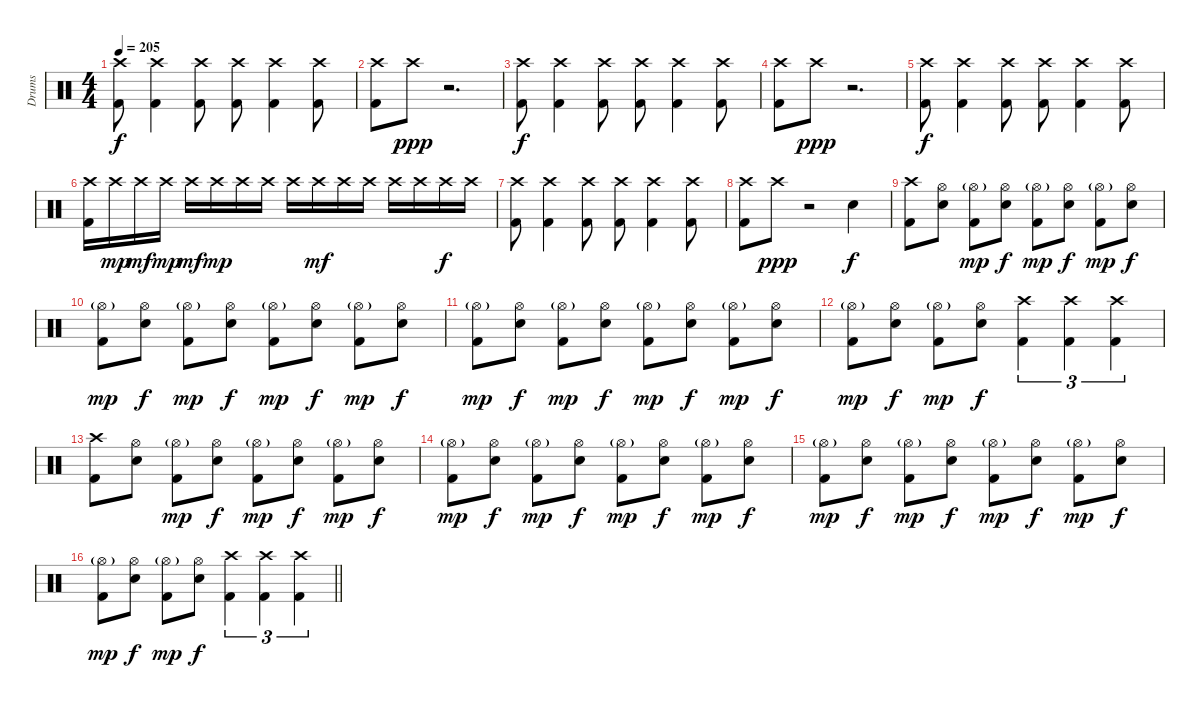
\track ("Drums" "Drums") {instrument percussion}
\staff {score}
\articulation defaults
\ts (4 4)
\tempo 205
\clef neutral
\ks c
("Crash high (hit)" "Kick (hit) 2").8{dy f} ("Crash high (hit)" "Kick (hit) 2").4 ("Crash high (hit)" "Kick (hit) 2").8 ("Crash high (hit)" "Kick (hit) 2").8 ("Crash high (hit)" "Kick (hit) 2").4 ("Crash high (hit)" "Kick (hit) 2").8 |
("Crash high (hit)" "Kick (hit) 2").8 "Crash high (hit)".8{dy ppp} r.2{d} |
("Crash high (hit)" "Kick (hit) 2").8{dy f} ("Crash high (hit)" "Kick (hit) 2").4 ("Crash high (hit)" "Kick (hit) 2").8 ("Crash high (hit)" "Kick (hit) 2").8 ("Crash high (hit)" "Kick (hit) 2").4 ("Crash high (hit)" "Kick (hit) 2").8 |
("Crash high (hit)" "Kick (hit) 2").8 "Crash high (hit)".8{dy ppp} r.2{d} |
("Crash high (hit)" "Kick (hit) 2").8{dy f} ("Crash high (hit)" "Kick (hit) 2").4 ("Crash high (hit)" "Kick (hit) 2").8 ("Crash high (hit)" "Kick (hit) 2").8 ("Crash high (hit)" "Kick (hit) 2").4 ("Crash high (hit)" "Kick (hit) 2").8 |
("Crash high (hit)" "Kick (hit) 2").16 "Crash high (hit)".16{dy mp} "Crash high (hit)".16{dy mf} "Crash high (hit)".16{dy mp} "Crash high (hit)".16{dy mf} "Crash high (hit)".16{dy mp} "Crash high (hit)".16 "Crash high (hit)".16 "Crash high (hit)".16 "Crash high (hit)".16{dy mf} "Crash high (hit)".16 "Crash high (hit)".16 "Crash high (hit)".16 "Crash high (hit)".16 "Crash high (hit)".16{dy f} "Crash high (hit)".16 |
("Crash high (hit)" "Kick (hit) 2").8 ("Crash high (hit)" "Kick (hit) 2").4 ("Crash high (hit)" "Kick (hit) 2").8 ("Crash high (hit)" "Kick (hit) 2").8 ("Crash high (hit)" "Kick (hit) 2").4 ("Crash high (hit)" "Kick (hit) 2").8 |
("Crash high (hit)" "Kick (hit) 2").8 "Crash high (hit)".8{dy ppp} r.2 "Electric Snare (hit)".4{dy f} |
("Crash high (hit)" "Kick (hit) 2").8 ("Hi-Hat (open)" "Electric Snare (hit)").8 ("Hi-Hat (open)"{g} "Kick (hit) 2").8{dy mp} ("Hi-Hat (open)" "Electric Snare (hit)").8{dy f} ("Hi-Hat (open)"{g} "Kick (hit) 2").8{dy mp} ("Hi-Hat (open)" "Electric Snare (hit)").8{dy f} ("Hi-Hat (open)"{g} "Kick (hit) 2").8{dy mp} ("Hi-Hat (open)" "Electric Snare (hit)").8{dy f} |
("Hi-Hat (open)"{g} "Kick (hit) 2").8{dy mp} ("Hi-Hat (open)" "Electric Snare (hit)").8{dy f} ("Hi-Hat (open)"{g} "Kick (hit) 2").8{dy mp} ("Hi-Hat (open)" "Electric Snare (hit)").8{dy f} ("Hi-Hat (open)"{g} "Kick (hit) 2").8{dy mp} ("Hi-Hat (open)" "Electric Snare (hit)").8{dy f} ("Hi-Hat (open)"{g} "Kick (hit) 2").8{dy mp} ("Hi-Hat (open)" "Electric Snare (hit)").8{dy f} |
("Hi-Hat (open)"{g} "Kick (hit) 2").8{dy mp} ("Hi-Hat (open)" "Electric Snare (hit)").8{dy f} ("Hi-Hat (open)"{g} "Kick (hit) 2").8{dy mp} ("Hi-Hat (open)" "Electric Snare (hit)").8{dy f} ("Hi-Hat (open)"{g} "Kick (hit) 2").8{dy mp} ("Hi-Hat (open)" "Electric Snare (hit)").8{dy f} ("Hi-Hat (open)"{g} "Kick (hit) 2").8{dy mp} ("Hi-Hat (open)" "Electric Snare (hit)").8{dy f} |
("Hi-Hat (open)"{g} "Kick (hit) 2").8{dy mp} ("Hi-Hat (open)" "Electric Snare (hit)").8{dy f} ("Hi-Hat (open)"{g} "Kick (hit) 2").8{dy mp} ("Hi-Hat (open)" "Electric Snare (hit)").8{dy f} ("Crash high (hit)" "Kick (hit) 2").4{tu (3 2)} ("Crash high (hit)" "Kick (hit) 2").4{tu (3 2)} ("Crash high (hit)" "Kick (hit) 2").4{tu (3 2)} |
("Crash high (hit)" "Kick (hit) 2").8 ("Hi-Hat (open)" "Electric Snare (hit)").8 ("Hi-Hat (open)"{g} "Kick (hit) 2").8{dy mp} ("Hi-Hat (open)" "Electric Snare (hit)").8{dy f} ("Hi-Hat (open)"{g} "Kick (hit) 2").8{dy mp} ("Hi-Hat (open)" "Electric Snare (hit)").8{dy f} ("Hi-Hat (open)"{g} "Kick (hit) 2").8{dy mp} ("Hi-Hat (open)" "Electric Snare (hit)").8{dy f} |
("Hi-Hat (open)"{g} "Kick (hit) 2").8{dy mp} ("Hi-Hat (open)" "Electric Snare (hit)").8{dy f} ("Hi-Hat (open)"{g} "Kick (hit) 2").8{dy mp} ("Hi-Hat (open)" "Electric Snare (hit)").8{dy f} ("Hi-Hat (open)"{g} "Kick (hit) 2").8{dy mp} ("Hi-Hat (open)" "Electric Snare (hit)").8{dy f} ("Hi-Hat (open)"{g} "Kick (hit) 2").8{dy mp} ("Hi-Hat (open)" "Electric Snare (hit)").8{dy f} |
("Hi-Hat (open)"{g} "Kick (hit) 2").8{dy mp} ("Hi-Hat (open)" "Electric Snare (hit)").8{dy f} ("Hi-Hat (open)"{g} "Kick (hit) 2").8{dy mp} ("Hi-Hat (open)" "Electric Snare (hit)").8{dy f} ("Hi-Hat (open)"{g} "Kick (hit) 2").8{dy mp} ("Hi-Hat (open)" "Electric Snare (hit)").8{dy f} ("Hi-Hat (open)"{g} "Kick (hit) 2").8{dy mp} ("Hi-Hat (open)" "Electric Snare (hit)").8{dy f} |
\barLineRight lightlight
("Hi-Hat (open)"{g} "Kick (hit) 2").8{dy mp} ("Hi-Hat (open)" "Electric Snare (hit)").8{dy f} ("Hi-Hat (open)"{g} "Kick (hit) 2").8{dy mp} ("Hi-Hat (open)" "Electric Snare (hit)").8{dy f} ("Crash high (hit)" "Kick (hit) 2").4{tu (3 2)} ("Crash high (hit)" "Kick (hit) 2").4{tu (3 2)} ("Crash high (hit)" "Kick (hit) 2").4{tu (3 2)}
